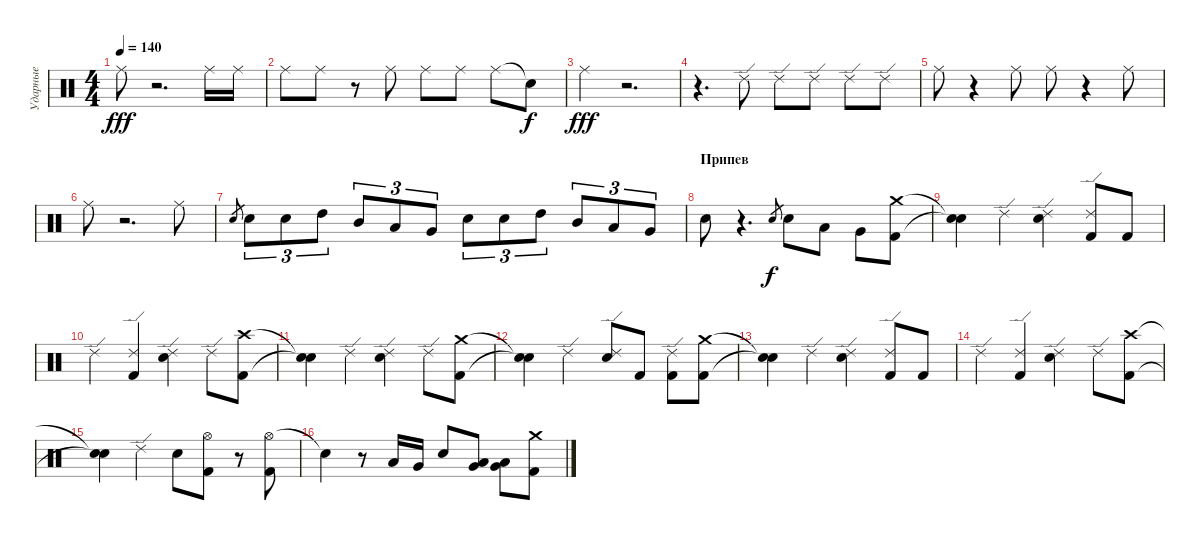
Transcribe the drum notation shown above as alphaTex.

\track ("Ударные" "Ударные") {instrument percussion}
\staff {score}
\articulation defaults
\ts (4 4)
\tempo 140
\clef neutral
\ks c "Ride (middle)".8{dy fff}
r.2{d} "Ride (middle)".16 "Ride (middle)".16 |
"Ride (middle)".8 "Ride (middle)".8 r.8 "Ride (middle)".8 "Ride (middle)".8 "Ride (middle)".8 "Ride (middle)".8 "Snare (hit)"{t}.8{dy f} |
"Ride (middle)".4{dy fff} r.2{d} |
r.4{d} "Ride (edge) 2".8 "Ride (edge) 2".8 "Ride (edge) 2".8 "Ride (edge) 2".8 "Ride (edge) 2".8 |
"Ride (middle)".8 r.4 "Ride (middle)".8 "Ride (middle)".8 r.4 "Ride (middle)".8 |
"Ride (middle)".8 r.2{d} "Ride (middle)".8 |
"Snare (hit) 2".8{gr} "Snare (hit) 2".8{tu (3 2)} "Snare (hit) 2".8{tu (3 2)} "High Tom (hit)".8{tu (3 2)} "Mid Tom (hit)".8{tu (3 2)} "Low Tom (hit)".8{tu (3 2)} "Very Low Tom (hit)".8{tu (3 2)} "Snare (hit) 2".8{tu (3 2)} "Snare (hit) 2".8{tu (3 2)} "High Tom (hit)".8{tu (3 2)} "Mid Tom (hit)".8{tu (3 2)} "Low Tom (hit)".8{tu (3 2)} "Very Low Tom (hit)".8{tu (3 2)} |
\section ("" "Припев")
"Snare (hit) 2".8 r.4{d} "Snare (hit) 2".8{gr dy f} "Snare (hit) 2".8 "Low Tom (hit)".8 "Very Low Tom (hit)".8 ("Crash medium (hit)" "Kick (hit) 2").8 |
("Snare (hit)"{t} "Snare (hit)"{t}).4 "Ride (edge) 2".4 ("Snare (hit) 2" "Ride (edge) 2").4 ("Kick (hit) 2" "Ride (edge) 2").8 "Kick (hit) 2".8 |
"Ride (edge) 2".4 ("Kick (hit) 2" "Ride (edge) 2").4 ("Snare (hit) 2" "Ride (edge) 2").4 "Ride (edge) 2".8 ("Crash high (hit)" "Kick (hit) 2").8 |
("Snare (hit)"{t} "Snare (hit)"{t}).4 "Ride (edge) 2".4 ("Snare (hit) 2" "Ride (edge) 2").4 "Ride (edge) 2".8 ("Crash medium (hit)" "Kick (hit) 2").8 |
("Snare (hit)"{t} "Snare (hit)"{t}).4 "Ride (edge) 2".4 ("Snare (hit) 2" "Ride (edge) 2").8 "Kick (hit) 2".8 ("Ride (edge) 2" "Kick (hit) 2").8 ("Crash medium (hit)" "Kick (hit) 2").8 |
("Snare (hit)"{t} "Snare (hit)"{t}).4 "Ride (edge) 2".4 ("Snare (hit) 2" "Ride (edge) 2").4 ("Kick (hit) 2" "Ride (edge) 2").8 "Kick (hit) 2".8 |
"Ride (edge) 2".4 ("Kick (hit) 2" "Ride (edge) 2").4 ("Snare (hit) 2" "Ride (edge) 2").4 "Ride (edge) 2".8 ("Crash high (hit)" "Kick (hit) 2").8 |
("Snare (hit)"{t} "Snare (hit)"{t}).4 "Ride (edge) 2".4 "Snare (hit) 2".8 ("Hi-Hat (open)" "Kick (hit) 2").8 r.8 ("Hi-Hat (open)" "Kick (hit) 2").8 |
"Snare (hit)"{t}.4 r.8 "Low Tom (hit)".16 "Very Low Tom (hit)".16 "Snare (hit) 2".8 ("Very Low Tom (hit)" "Low Tom (hit)").8 ("Very Low Tom (hit)" "Low Floor Tom (hit)").8 ("Crash medium (hit)" "Kick (hit) 2").8
